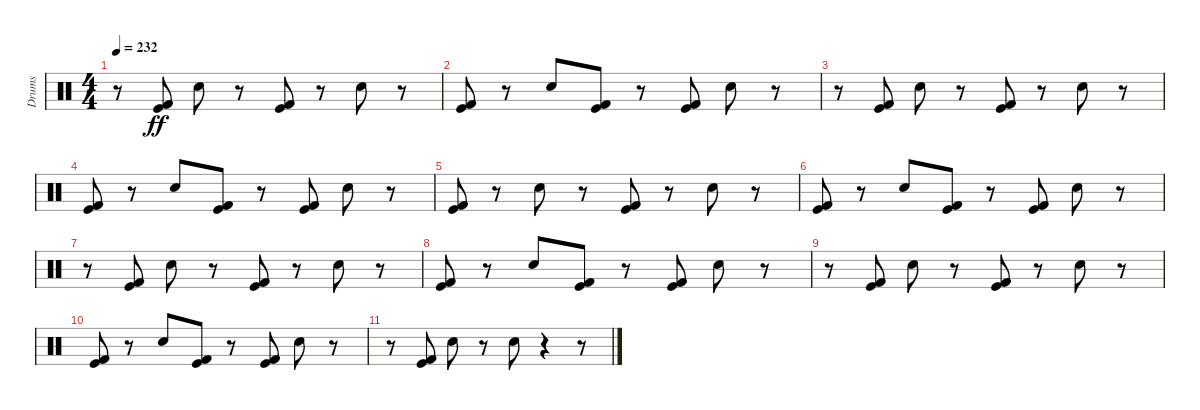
\track ("Drums" "Drums") {instrument percussion}
\staff {score}
\articulation defaults
\ts (4 4)
\tempo 232
\clef neutral
\ks c
r.8{dy ff} ("Kick (hit)" "Kick (hit) 2").8 "Snare (hit) 2".8 r.8 ("Kick (hit)" "Kick (hit) 2").8 r.8 "Snare (hit) 2".8 r.8 |
("Kick (hit)" "Kick (hit) 2").8 r.8 "Snare (hit) 2".8 ("Kick (hit)" "Kick (hit) 2").8 r.8 ("Kick (hit)" "Kick (hit) 2").8 "Snare (hit) 2".8 r.8 |
r.8 ("Kick (hit)" "Kick (hit) 2").8 "Snare (hit) 2".8 r.8 ("Kick (hit)" "Kick (hit) 2").8 r.8 "Snare (hit) 2".8 r.8 |
("Kick (hit)" "Kick (hit) 2").8 r.8 "Snare (hit) 2".8 ("Kick (hit)" "Kick (hit) 2").8 r.8 ("Kick (hit)" "Kick (hit) 2").8 "Snare (hit) 2".8 r.8 |
("Kick (hit)" "Kick (hit) 2").8 r.8 "Snare (hit) 2".8 r.8 ("Kick (hit)" "Kick (hit) 2").8 r.8 "Snare (hit) 2".8 r.8 |
("Kick (hit)" "Kick (hit) 2").8 r.8 "Snare (hit) 2".8 ("Kick (hit)" "Kick (hit) 2").8 r.8 ("Kick (hit)" "Kick (hit) 2").8 "Snare (hit) 2".8 r.8 |
r.8 ("Kick (hit)" "Kick (hit) 2").8 "Snare (hit) 2".8 r.8 ("Kick (hit)" "Kick (hit) 2").8 r.8 "Snare (hit) 2".8 r.8 |
("Kick (hit)" "Kick (hit) 2").8 r.8 "Snare (hit) 2".8 ("Kick (hit)" "Kick (hit) 2").8 r.8 ("Kick (hit)" "Kick (hit) 2").8 "Snare (hit) 2".8 r.8 |
r.8 ("Kick (hit)" "Kick (hit) 2").8 "Snare (hit) 2".8 r.8 ("Kick (hit)" "Kick (hit) 2").8 r.8 "Snare (hit) 2".8 r.8 |
("Kick (hit)" "Kick (hit) 2").8 r.8 "Snare (hit) 2".8 ("Kick (hit)" "Kick (hit) 2").8 r.8 ("Kick (hit)" "Kick (hit) 2").8 "Snare (hit) 2".8 r.8 |
r.8 ("Kick (hit)" "Kick (hit) 2").8 "Snare (hit) 2".8 r.8 "Snare (hit) 2".8 r.4 r.8
